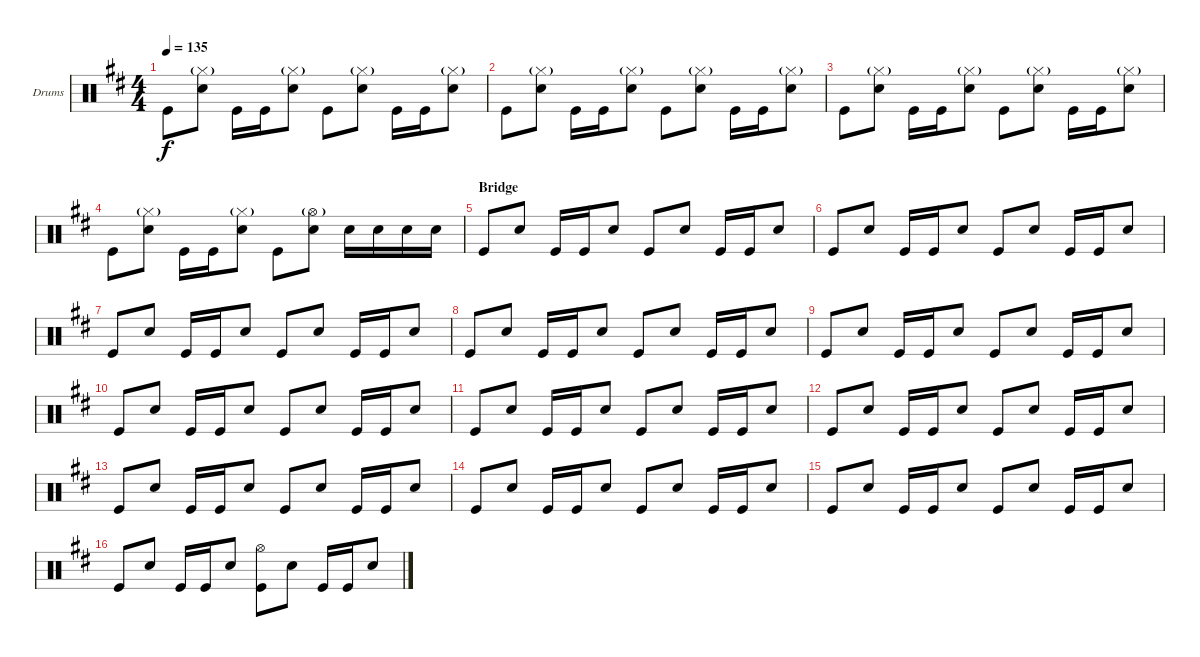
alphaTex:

\defaultSystemsLayout 4
\bracketExtendMode groupsimilarinstruments
\firstSystemTrackNameOrientation horizontal
\otherSystemsTrackNameOrientation horizontal
\track ("Drumkit" "Drums") {instrument percussion}
\staff {score}
\articulation defaults
\ts (4 4)
\tempo 135
\clef neutral
\scale
0.973518
\ks d "Kick (hit)".8{dy f}
("Snare (hit) 2" "Hi-Hat (closed)"{g}).8 "Kick (hit)".16 "Kick (hit)".16 ("Snare (hit) 2" "Hi-Hat (closed)"{g}).8 "Kick (hit)".8 ("Snare (hit) 2" "Hi-Hat (closed)"{g}).8 "Kick (hit)".16 "Kick (hit)".16 ("Snare (hit) 2" "Hi-Hat (closed)"{g}).8 |
\scale
1.05296 "Kick (hit)".8 ("Snare (hit) 2" "Hi-Hat (closed)"{g}).8 "Kick (hit)".16 "Kick (hit)".16 ("Snare (hit) 2" "Hi-Hat (closed)"{g}).8 "Kick (hit)".8 ("Snare (hit) 2" "Hi-Hat (closed)"{g}).8 "Kick (hit)".16 "Kick (hit)".16 ("Snare (hit) 2" "Hi-Hat (closed)"{g}).8 |
\scale
0.973518 "Kick (hit)".8 ("Snare (hit) 2" "Hi-Hat (closed)"{g}).8 "Kick (hit)".16 "Kick (hit)".16 ("Snare (hit) 2" "Hi-Hat (closed)"{g}).8 "Kick (hit)".8 ("Snare (hit) 2" "Hi-Hat (closed)"{g}).8 "Kick (hit)".16 "Kick (hit)".16 ("Snare (hit) 2" "Hi-Hat (closed)"{g}).8 |
\scale
0.973518 "Kick (hit)".8 ("Snare (hit) 2" "Hi-Hat (closed)"{g}).8 "Kick (hit)".16 "Kick (hit)".16 ("Snare (hit) 2" "Hi-Hat (closed)"{g}).8 "Kick (hit)".8 ("Snare (hit) 2" "Hi-Hat (open)"{g}).8 "Snare (hit) 2".16 "Snare (hit) 2".16 "Snare (hit) 2".16 "Snare (hit) 2".16 |
\section ("" "Bridge")
\scale
1.05296 "Kick (hit)".8 "Snare (hit) 2".8 "Kick (hit)".16 "Kick (hit)".16 "Snare (hit) 2".8 "Kick (hit)".8 "Snare (hit) 2".8 "Kick (hit)".16 "Kick (hit)".16 "Snare (hit) 2".8 |
\scale
0.973518 "Kick (hit)".8 "Snare (hit) 2".8 "Kick (hit)".16 "Kick (hit)".16 "Snare (hit) 2".8 "Kick (hit)".8 "Snare (hit) 2".8 "Kick (hit)".16 "Kick (hit)".16 "Snare (hit) 2".8 |
\scale
0.973518 "Kick (hit)".8 "Snare (hit) 2".8 "Kick (hit)".16 "Kick (hit)".16 "Snare (hit) 2".8 "Kick (hit)".8 "Snare (hit) 2".8 "Kick (hit)".16 "Kick (hit)".16 "Snare (hit) 2".8 |
\scale
1.05296 "Kick (hit)".8 "Snare (hit) 2".8 "Kick (hit)".16 "Kick (hit)".16 "Snare (hit) 2".8 "Kick (hit)".8 "Snare (hit) 2".8 "Kick (hit)".16 "Kick (hit)".16 "Snare (hit) 2".8 |
\scale
0.973518 "Kick (hit)".8 "Snare (hit) 2".8 "Kick (hit)".16 "Kick (hit)".16 "Snare (hit) 2".8 "Kick (hit)".8 "Snare (hit) 2".8 "Kick (hit)".16 "Kick (hit)".16 "Snare (hit) 2".8 |
\scale
0.973518 "Kick (hit)".8 "Snare (hit) 2".8 "Kick (hit)".16 "Kick (hit)".16 "Snare (hit) 2".8 "Kick (hit)".8 "Snare (hit) 2".8 "Kick (hit)".16 "Kick (hit)".16 "Snare (hit) 2".8 |
\scale
1.05296 "Kick (hit)".8 "Snare (hit) 2".8 "Kick (hit)".16 "Kick (hit)".16 "Snare (hit) 2".8 "Kick (hit)".8 "Snare (hit) 2".8 "Kick (hit)".16 "Kick (hit)".16 "Snare (hit) 2".8 |
\scale
0.973518 "Kick (hit)".8 "Snare (hit) 2".8 "Kick (hit)".16 "Kick (hit)".16 "Snare (hit) 2".8 "Kick (hit)".8 "Snare (hit) 2".8 "Kick (hit)".16 "Kick (hit)".16 "Snare (hit) 2".8 |
\scale
0.973518 "Kick (hit)".8 "Snare (hit) 2".8 "Kick (hit)".16 "Kick (hit)".16 "Snare (hit) 2".8 "Kick (hit)".8 "Snare (hit) 2".8 "Kick (hit)".16 "Kick (hit)".16 "Snare (hit) 2".8 |
\scale
1.05296 "Kick (hit)".8 "Snare (hit) 2".8 "Kick (hit)".16 "Kick (hit)".16 "Snare (hit) 2".8 "Kick (hit)".8 "Snare (hit) 2".8 "Kick (hit)".16 "Kick (hit)".16 "Snare (hit) 2".8 |
\scale
0.973518 "Kick (hit)".8 "Snare (hit) 2".8 "Kick (hit)".16 "Kick (hit)".16 "Snare (hit) 2".8 "Kick (hit)".8 "Snare (hit) 2".8 "Kick (hit)".16 "Kick (hit)".16 "Snare (hit) 2".8 |
\scale
0.973518 "Kick (hit)".8 "Snare (hit) 2".8 "Kick (hit)".16 "Kick (hit)".16 "Snare (hit) 2".8 ("Kick (hit)" "Hi-Hat (open)").8 "Snare (hit) 2".8 "Kick (hit)".16 "Kick (hit)".16 "Snare (hit) 2".8
